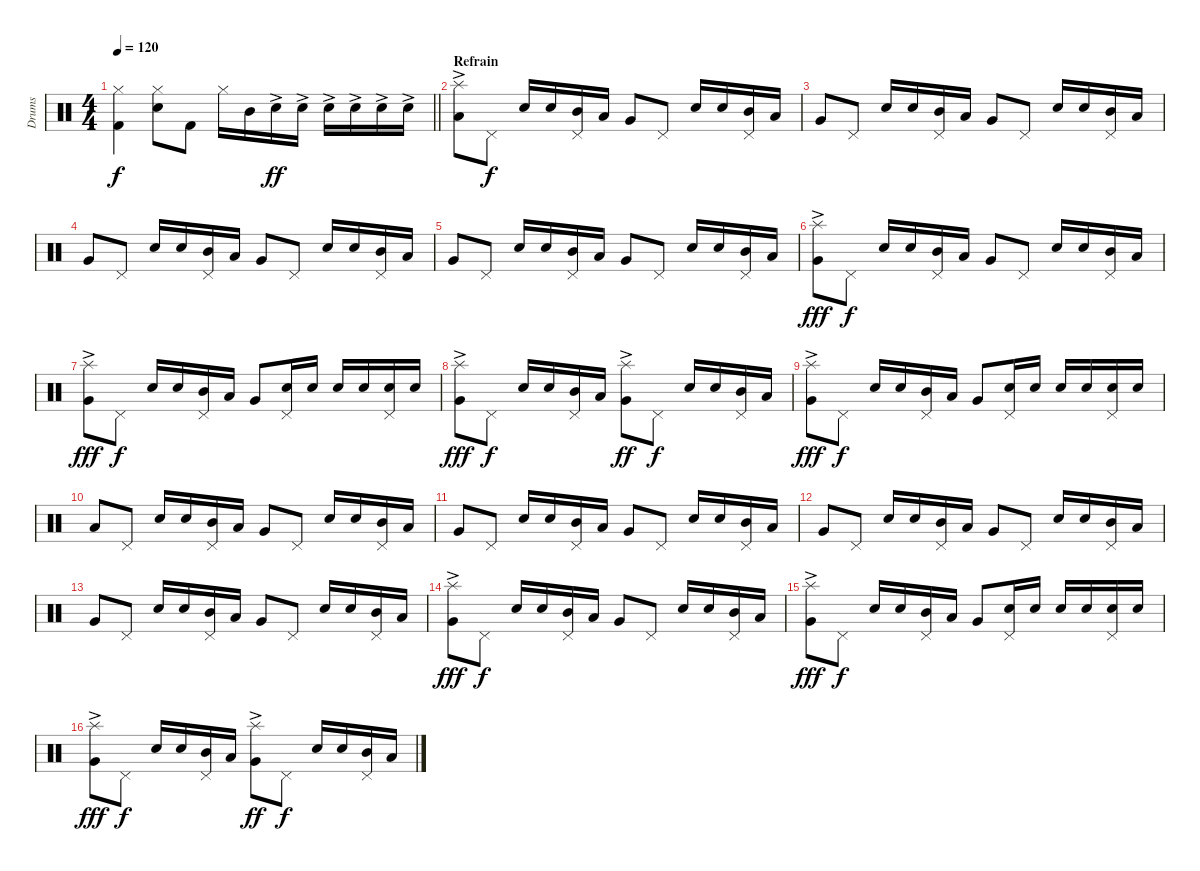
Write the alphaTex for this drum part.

\track ("Drums" "Drums") {instrument percussion}
\staff {score}
\articulation defaults
\ts (4 4)
\tempo 120
\clef neutral
\barLineRight lightlight
\ks c
("Hi-Hat (closed)" "Kick (hit) 2").4{dy f} ("Hi-Hat (closed)" "Snare (hit) 2").8 "Kick (hit) 2".8 "Hi-Hat (closed)".16 "Mid Tom (hit)".16 "Snare (hit) 2"{ac}.16{dy ff} "Snare (hit) 2"{ac}.16 "Snare (hit) 2"{ac}.16 "Snare (hit) 2"{ac}.16 "Snare (hit) 2"{ac}.16 "Snare (hit) 2"{ac}.16 |
\section ("" "Refrain")
("Splash (hit)"{ac} "Low Tom (hit)").8 "Pedal Hi-Hat (hit)".8{dy f} "Snare (hit) 2".16 "Snare (hit) 2".16 ("Mid Tom (hit)" "Pedal Hi-Hat (hit)").16 "Low Tom (hit)".16 "Very Low Tom (hit)".8 "Pedal Hi-Hat (hit)".8 "Snare (hit) 2".16 "Snare (hit) 2".16 ("Mid Tom (hit)" "Pedal Hi-Hat (hit)").16 "Low Tom (hit)".16 |
"Very Low Tom (hit)".8 "Pedal Hi-Hat (hit)".8 "Snare (hit) 2".16 "Snare (hit) 2".16 ("Mid Tom (hit)" "Pedal Hi-Hat (hit)").16 "Low Tom (hit)".16 "Very Low Tom (hit)".8 "Pedal Hi-Hat (hit)".8 "Snare (hit) 2".16 "Snare (hit) 2".16 ("Mid Tom (hit)" "Pedal Hi-Hat (hit)").16 "Low Tom (hit)".16 |
"Very Low Tom (hit)".8 "Pedal Hi-Hat (hit)".8 "Snare (hit) 2".16 "Snare (hit) 2".16 ("Mid Tom (hit)" "Pedal Hi-Hat (hit)").16 "Low Tom (hit)".16 "Very Low Tom (hit)".8 "Pedal Hi-Hat (hit)".8 "Snare (hit) 2".16 "Snare (hit) 2".16 ("Mid Tom (hit)" "Pedal Hi-Hat (hit)").16 "Low Tom (hit)".16 |
"Very Low Tom (hit)".8 "Pedal Hi-Hat (hit)".8 "Snare (hit) 2".16 "Snare (hit) 2".16 ("Mid Tom (hit)" "Pedal Hi-Hat (hit)").16 "Low Tom (hit)".16 "Very Low Tom (hit)".8 "Pedal Hi-Hat (hit)".8 "Snare (hit) 2".16 "Snare (hit) 2".16 ("Mid Tom (hit)" "Pedal Hi-Hat (hit)").16 "Low Tom (hit)".16 |
("Splash (hit)"{ac} "Very Low Tom (hit)").8{dy fff} "Pedal Hi-Hat (hit)".8{dy f} "Snare (hit) 2".16 "Snare (hit) 2".16 ("Mid Tom (hit)" "Pedal Hi-Hat (hit)").16 "Low Tom (hit)".16 "Very Low Tom (hit)".8 "Pedal Hi-Hat (hit)".8 "Snare (hit) 2".16 "Snare (hit) 2".16 ("Mid Tom (hit)" "Pedal Hi-Hat (hit)").16 "Low Tom (hit)".16 |
("Splash (hit)"{ac} "Very Low Tom (hit)").8{dy fff} "Pedal Hi-Hat (hit)".8{dy f} "Snare (hit) 2".16 "Snare (hit) 2".16 ("Mid Tom (hit)" "Pedal Hi-Hat (hit)").16 "Low Tom (hit)".16 "Very Low Tom (hit)".8 ("Snare (hit) 2" "Pedal Hi-Hat (hit)").16 "Snare (hit) 2".16 "Snare (hit) 2".16 "Snare (hit) 2".16 ("Snare (hit) 2" "Pedal Hi-Hat (hit)").16 "Snare (hit) 2".16 |
("Splash (hit)"{ac} "Very Low Tom (hit)").8{dy fff} "Pedal Hi-Hat (hit)".8{dy f} "Snare (hit) 2".16 "Snare (hit) 2".16 ("Mid Tom (hit)" "Pedal Hi-Hat (hit)").16 "Low Tom (hit)".16 ("Splash (hit)"{ac} "Very Low Tom (hit)").8{dy ff} "Pedal Hi-Hat (hit)".8{dy f} "Snare (hit) 2".16 "Snare (hit) 2".16 ("Mid Tom (hit)" "Pedal Hi-Hat (hit)").16 "Low Tom (hit)".16 |
("Splash (hit)"{ac} "Very Low Tom (hit)").8{dy fff} "Pedal Hi-Hat (hit)".8{dy f} "Snare (hit) 2".16 "Snare (hit) 2".16 ("Mid Tom (hit)" "Pedal Hi-Hat (hit)").16 "Low Tom (hit)".16 "Very Low Tom (hit)".8 ("Snare (hit) 2" "Pedal Hi-Hat (hit)").16 "Snare (hit) 2".16 "Snare (hit) 2".16 "Snare (hit) 2".16 ("Snare (hit) 2" "Pedal Hi-Hat (hit)").16 "Snare (hit) 2".16 |
"Low Tom (hit)".8 "Pedal Hi-Hat (hit)".8 "Snare (hit) 2".16 "Snare (hit) 2".16 ("Mid Tom (hit)" "Pedal Hi-Hat (hit)").16 "Low Tom (hit)".16 "Very Low Tom (hit)".8 "Pedal Hi-Hat (hit)".8 "Snare (hit) 2".16 "Snare (hit) 2".16 ("Mid Tom (hit)" "Pedal Hi-Hat (hit)").16 "Low Tom (hit)".16 |
"Very Low Tom (hit)".8 "Pedal Hi-Hat (hit)".8 "Snare (hit) 2".16 "Snare (hit) 2".16 ("Mid Tom (hit)" "Pedal Hi-Hat (hit)").16 "Low Tom (hit)".16 "Very Low Tom (hit)".8 "Pedal Hi-Hat (hit)".8 "Snare (hit) 2".16 "Snare (hit) 2".16 ("Mid Tom (hit)" "Pedal Hi-Hat (hit)").16 "Low Tom (hit)".16 |
"Very Low Tom (hit)".8 "Pedal Hi-Hat (hit)".8 "Snare (hit) 2".16 "Snare (hit) 2".16 ("Mid Tom (hit)" "Pedal Hi-Hat (hit)").16 "Low Tom (hit)".16 "Very Low Tom (hit)".8 "Pedal Hi-Hat (hit)".8 "Snare (hit) 2".16 "Snare (hit) 2".16 ("Mid Tom (hit)" "Pedal Hi-Hat (hit)").16 "Low Tom (hit)".16 |
"Very Low Tom (hit)".8 "Pedal Hi-Hat (hit)".8 "Snare (hit) 2".16 "Snare (hit) 2".16 ("Mid Tom (hit)" "Pedal Hi-Hat (hit)").16 "Low Tom (hit)".16 "Very Low Tom (hit)".8 "Pedal Hi-Hat (hit)".8 "Snare (hit) 2".16 "Snare (hit) 2".16 ("Mid Tom (hit)" "Pedal Hi-Hat (hit)").16 "Low Tom (hit)".16 |
("Splash (hit)"{ac} "Very Low Tom (hit)").8{dy fff} "Pedal Hi-Hat (hit)".8{dy f} "Snare (hit) 2".16 "Snare (hit) 2".16 ("Mid Tom (hit)" "Pedal Hi-Hat (hit)").16 "Low Tom (hit)".16 "Very Low Tom (hit)".8 "Pedal Hi-Hat (hit)".8 "Snare (hit) 2".16 "Snare (hit) 2".16 ("Mid Tom (hit)" "Pedal Hi-Hat (hit)").16 "Low Tom (hit)".16 |
("Splash (hit)"{ac} "Very Low Tom (hit)").8{dy fff} "Pedal Hi-Hat (hit)".8{dy f} "Snare (hit) 2".16 "Snare (hit) 2".16 ("Mid Tom (hit)" "Pedal Hi-Hat (hit)").16 "Low Tom (hit)".16 "Very Low Tom (hit)".8 ("Snare (hit) 2" "Pedal Hi-Hat (hit)").16 "Snare (hit) 2".16 "Snare (hit) 2".16 "Snare (hit) 2".16 ("Snare (hit) 2" "Pedal Hi-Hat (hit)").16 "Snare (hit) 2".16 |
("Splash (hit)"{ac} "Very Low Tom (hit)").8{dy fff} "Pedal Hi-Hat (hit)".8{dy f} "Snare (hit) 2".16 "Snare (hit) 2".16 ("Mid Tom (hit)" "Pedal Hi-Hat (hit)").16 "Low Tom (hit)".16 ("Splash (hit)"{ac} "Very Low Tom (hit)").8{dy ff} "Pedal Hi-Hat (hit)".8{dy f} "Snare (hit) 2".16 "Snare (hit) 2".16 ("Mid Tom (hit)" "Pedal Hi-Hat (hit)").16 "Low Tom (hit)".16
